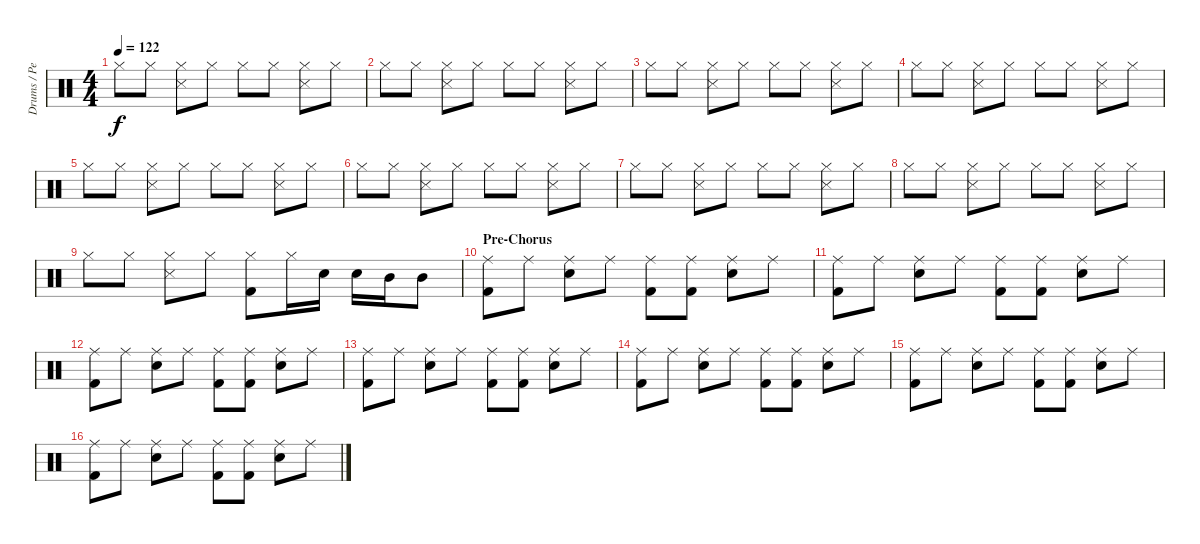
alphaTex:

\track ("Drums / Percussion" "Drums / Pe") {instrument percussion}
\staff {score}
\articulation defaults
\ts (4 4)
\tempo 122
\clef neutral
\ks c "Hi-Hat (closed)".8{dy f} "Hi-Hat (closed)".8
("Hi-Hat (closed)" "Snare (side stick) 3").8 "Hi-Hat (closed)".8 "Hi-Hat (closed)".8 "Hi-Hat (closed)".8 ("Hi-Hat (closed)" "Snare (side stick) 3").8 "Hi-Hat (closed)".8 |
"Hi-Hat (closed)".8 "Hi-Hat (closed)".8 ("Hi-Hat (closed)" "Snare (side stick) 3").8 "Hi-Hat (closed)".8 "Hi-Hat (closed)".8 "Hi-Hat (closed)".8 ("Hi-Hat (closed)" "Snare (side stick) 3").8 "Hi-Hat (closed)".8 |
"Hi-Hat (closed)".8 "Hi-Hat (closed)".8 ("Hi-Hat (closed)" "Snare (side stick) 3").8 "Hi-Hat (closed)".8 "Hi-Hat (closed)".8 "Hi-Hat (closed)".8 ("Hi-Hat (closed)" "Snare (side stick) 3").8 "Hi-Hat (closed)".8 |
"Hi-Hat (closed)".8 "Hi-Hat (closed)".8 ("Hi-Hat (closed)" "Snare (side stick) 3").8 "Hi-Hat (closed)".8 "Hi-Hat (closed)".8 "Hi-Hat (closed)".8 ("Hi-Hat (closed)" "Snare (side stick) 3").8 "Hi-Hat (closed)".8 |
"Hi-Hat (closed)".8 "Hi-Hat (closed)".8 ("Hi-Hat (closed)" "Snare (side stick) 3").8 "Hi-Hat (closed)".8 "Hi-Hat (closed)".8 "Hi-Hat (closed)".8 ("Hi-Hat (closed)" "Snare (side stick) 3").8 "Hi-Hat (closed)".8 |
"Hi-Hat (closed)".8 "Hi-Hat (closed)".8 ("Hi-Hat (closed)" "Snare (side stick) 3").8 "Hi-Hat (closed)".8 "Hi-Hat (closed)".8 "Hi-Hat (closed)".8 ("Hi-Hat (closed)" "Snare (side stick) 3").8 "Hi-Hat (closed)".8 |
"Hi-Hat (closed)".8 "Hi-Hat (closed)".8 ("Hi-Hat (closed)" "Snare (side stick) 3").8 "Hi-Hat (closed)".8 "Hi-Hat (closed)".8 "Hi-Hat (closed)".8 ("Hi-Hat (closed)" "Snare (side stick) 3").8 "Hi-Hat (closed)".8 |
"Hi-Hat (closed)".8 "Hi-Hat (closed)".8 ("Hi-Hat (closed)" "Snare (side stick) 3").8 "Hi-Hat (closed)".8 "Hi-Hat (closed)".8 "Hi-Hat (closed)".8 ("Hi-Hat (closed)" "Snare (side stick) 3").8 "Hi-Hat (closed)".8 |
"Hi-Hat (closed)".8 "Hi-Hat (closed)".8 ("Hi-Hat (closed)" "Snare (side stick) 3").8 "Hi-Hat (closed)".8 ("Hi-Hat (closed)" "Kick (hit) 2").8 "Hi-Hat (closed)".16 "Snare (hit) 2".16 "Snare (hit) 2".16 "Mid Tom (hit)".16 "Mid Tom (hit)".8 |
\section ("" "Pre-Chorus")
("Ride (middle)" "Kick (hit) 2").8 "Ride (middle)".8 ("Ride (middle)" "Snare (hit) 2").8 "Ride (middle)".8 ("Ride (middle)" "Kick (hit) 2").8 ("Ride (middle)" "Kick (hit) 2").8 ("Ride (middle)" "Snare (hit) 2").8 "Ride (middle)".8 |
("Ride (middle)" "Kick (hit) 2").8 "Ride (middle)".8 ("Ride (middle)" "Snare (hit) 2").8 "Ride (middle)".8 ("Ride (middle)" "Kick (hit) 2").8 ("Ride (middle)" "Kick (hit) 2").8 ("Ride (middle)" "Snare (hit) 2").8 "Ride (middle)".8 |
("Ride (middle)" "Kick (hit) 2").8 "Ride (middle)".8 ("Ride (middle)" "Snare (hit) 2").8 "Ride (middle)".8 ("Ride (middle)" "Kick (hit) 2").8 ("Ride (middle)" "Kick (hit) 2").8 ("Ride (middle)" "Snare (hit) 2").8 "Ride (middle)".8 |
("Ride (middle)" "Kick (hit) 2").8 "Ride (middle)".8 ("Ride (middle)" "Snare (hit) 2").8 "Ride (middle)".8 ("Ride (middle)" "Kick (hit) 2").8 ("Ride (middle)" "Kick (hit) 2").8 ("Ride (middle)" "Snare (hit) 2").8 "Ride (middle)".8 |
("Ride (middle)" "Kick (hit) 2").8 "Ride (middle)".8 ("Ride (middle)" "Snare (hit) 2").8 "Ride (middle)".8 ("Ride (middle)" "Kick (hit) 2").8 ("Ride (middle)" "Kick (hit) 2").8 ("Ride (middle)" "Snare (hit) 2").8 "Ride (middle)".8 |
("Ride (middle)" "Kick (hit) 2").8 "Ride (middle)".8 ("Ride (middle)" "Snare (hit) 2").8 "Ride (middle)".8 ("Ride (middle)" "Kick (hit) 2").8 ("Ride (middle)" "Kick (hit) 2").8 ("Ride (middle)" "Snare (hit) 2").8 "Ride (middle)".8 |
("Ride (middle)" "Kick (hit) 2").8 "Ride (middle)".8 ("Ride (middle)" "Snare (hit) 2").8 "Ride (middle)".8 ("Ride (middle)" "Kick (hit) 2").8 ("Ride (middle)" "Kick (hit) 2").8 ("Ride (middle)" "Snare (hit) 2").8 "Ride (middle)".8
